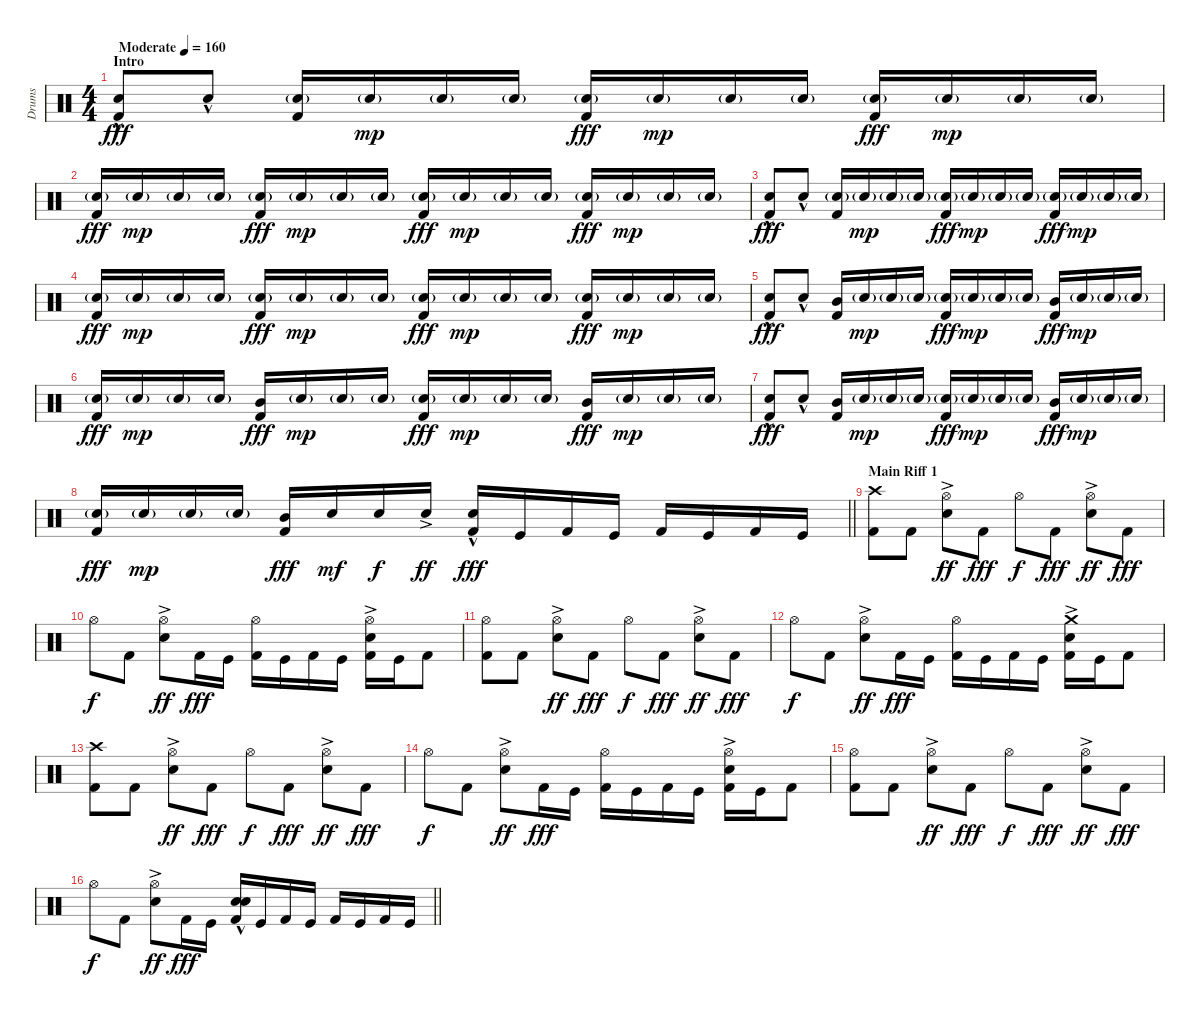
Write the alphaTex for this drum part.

\track ("Drums" "Drums") {instrument percussion}
\staff {score}
\articulation defaults
\ts (4 4)
\section ("" "Intro")
\tempo (160 "Moderate")
\clef neutral
\ks c
("Snare (hit) 2"{hac} "Kick (hit) 2").8{dy fff} "Snare (hit) 2"{hac}.8 ("Snare (hit) 2"{g} "Kick (hit) 2").16 "Snare (hit) 2"{g}.16{dy mp} "Snare (hit) 2"{g}.16 "Snare (hit) 2"{g}.16 ("Snare (hit) 2"{g} "Kick (hit) 2").16{dy fff} "Snare (hit) 2"{g}.16{dy mp} "Snare (hit) 2"{g}.16 "Snare (hit) 2"{g}.16 ("Snare (hit) 2"{g} "Kick (hit) 2").16{dy fff} "Snare (hit) 2"{g}.16{dy mp} "Snare (hit) 2"{g}.16 "Snare (hit) 2"{g}.16 |
("Snare (hit) 2"{g} "Kick (hit) 2").16{dy fff} "Snare (hit) 2"{g}.16{dy mp} "Snare (hit) 2"{g}.16 "Snare (hit) 2"{g}.16 ("Snare (hit) 2"{g} "Kick (hit) 2").16{dy fff} "Snare (hit) 2"{g}.16{dy mp} "Snare (hit) 2"{g}.16 "Snare (hit) 2"{g}.16 ("Snare (hit) 2"{g} "Kick (hit) 2").16{dy fff} "Snare (hit) 2"{g}.16{dy mp} "Snare (hit) 2"{g}.16 "Snare (hit) 2"{g}.16 ("Snare (hit) 2"{g} "Kick (hit) 2").16{dy fff} "Snare (hit) 2"{g}.16{dy mp} "Snare (hit) 2"{g}.16 "Snare (hit) 2"{g}.16 |
("Snare (hit) 2"{hac} "Kick (hit) 2").8{dy fff} "Snare (hit) 2"{hac}.8 ("Snare (hit) 2"{g} "Kick (hit) 2").16 "Snare (hit) 2"{g}.16{dy mp} "Snare (hit) 2"{g}.16 "Snare (hit) 2"{g}.16 ("Snare (hit) 2"{g} "Kick (hit) 2").16{dy fff} "Snare (hit) 2"{g}.16{dy mp} "Snare (hit) 2"{g}.16 "Snare (hit) 2"{g}.16 ("Snare (hit) 2"{g} "Kick (hit) 2").16{dy fff} "Snare (hit) 2"{g}.16{dy mp} "Snare (hit) 2"{g}.16 "Snare (hit) 2"{g}.16 |
("Snare (hit) 2"{g} "Kick (hit) 2").16{dy fff} "Snare (hit) 2"{g}.16{dy mp} "Snare (hit) 2"{g}.16 "Snare (hit) 2"{g}.16 ("Snare (hit) 2"{g} "Kick (hit) 2").16{dy fff} "Snare (hit) 2"{g}.16{dy mp} "Snare (hit) 2"{g}.16 "Snare (hit) 2"{g}.16 ("Snare (hit) 2"{g} "Kick (hit) 2").16{dy fff} "Snare (hit) 2"{g}.16{dy mp} "Snare (hit) 2"{g}.16 "Snare (hit) 2"{g}.16 ("Snare (hit) 2"{g} "Kick (hit) 2").16{dy fff} "Snare (hit) 2"{g}.16{dy mp} "Snare (hit) 2"{g}.16 "Snare (hit) 2"{g}.16 |
("Snare (hit) 2"{hac} "Kick (hit) 2").8{dy fff} "Snare (hit) 2"{hac}.8 ("Mid Tom (hit)" "Kick (hit) 2").16 "Snare (hit) 2"{g}.16{dy mp} "Snare (hit) 2"{g}.16 "Snare (hit) 2"{g}.16 ("Snare (hit) 2"{g} "Kick (hit) 2").16{dy fff} "Snare (hit) 2"{g}.16{dy mp} "Snare (hit) 2"{g}.16 "Snare (hit) 2"{g}.16 ("Mid Tom (hit)" "Kick (hit) 2").16{dy fff} "Snare (hit) 2"{g}.16{dy mp} "Snare (hit) 2"{g}.16 "Snare (hit) 2"{g}.16 |
("Snare (hit) 2"{g} "Kick (hit) 2").16{dy fff} "Snare (hit) 2"{g}.16{dy mp} "Snare (hit) 2"{g}.16 "Snare (hit) 2"{g}.16 ("Mid Tom (hit)" "Kick (hit) 2").16{dy fff} "Snare (hit) 2"{g}.16{dy mp} "Snare (hit) 2"{g}.16 "Snare (hit) 2"{g}.16 ("Snare (hit) 2"{g} "Kick (hit) 2").16{dy fff} "Snare (hit) 2"{g}.16{dy mp} "Snare (hit) 2"{g}.16 "Snare (hit) 2"{g}.16 ("Mid Tom (hit)" "Kick (hit) 2").16{dy fff} "Snare (hit) 2"{g}.16{dy mp} "Snare (hit) 2"{g}.16 "Snare (hit) 2"{g}.16 |
("Snare (hit) 2"{hac} "Kick (hit) 2").8{dy fff} "Snare (hit) 2"{hac}.8 ("Mid Tom (hit)" "Kick (hit) 2").16 "Snare (hit) 2"{g}.16{dy mp} "Snare (hit) 2"{g}.16 "Snare (hit) 2"{g}.16 ("Snare (hit) 2"{g} "Kick (hit) 2").16{dy fff} "Snare (hit) 2"{g}.16{dy mp} "Snare (hit) 2"{g}.16 "Snare (hit) 2"{g}.16 ("Mid Tom (hit)" "Kick (hit) 2").16{dy fff} "Snare (hit) 2"{g}.16{dy mp} "Snare (hit) 2"{g}.16 "Snare (hit) 2"{g}.16 |
\barLineRight lightlight
("Snare (hit) 2"{g} "Kick (hit) 2").16{dy fff} "Snare (hit) 2"{g}.16{dy mp} "Snare (hit) 2"{g}.16 "Snare (hit) 2"{g}.16 ("Mid Tom (hit)" "Kick (hit) 2").16{dy fff} "Snare (hit) 2".16{dy mf} "Snare (hit) 2".16{dy f} "Snare (hit) 2"{ac}.16{dy ff} ("Snare (hit) 2"{hac} "Kick (hit) 2").16{dy fff} "Kick (hit)".16 "Kick (hit) 2".16 "Kick (hit)".16 "Kick (hit) 2".16 "Kick (hit)".16 "Kick (hit) 2".16 "Kick (hit)".16 |
\section ("" "Main Riff 1")
("Crash high (hit)" "Kick (hit) 2").8 "Kick (hit) 2".8 ("Hi-Hat (open)" "Snare (hit) 2"{ac}).8{dy ff} "Kick (hit) 2".8{dy fff} "Hi-Hat (open)".8{dy f} "Kick (hit) 2".8{dy fff} ("Hi-Hat (open)" "Snare (hit) 2"{ac}).8{dy ff} "Kick (hit) 2".8{dy fff} |
"Hi-Hat (open)".8{dy f} "Kick (hit) 2".8 ("Hi-Hat (open)" "Snare (hit) 2"{ac}).8{dy ff} "Kick (hit) 2".16{dy fff} "Kick (hit)".16 ("Hi-Hat (open)" "Kick (hit) 2").16 "Kick (hit)".16 "Kick (hit) 2".16 "Kick (hit)".16 ("Hi-Hat (open)" "Snare (hit) 2"{ac} "Kick (hit) 2").16 "Kick (hit)".16 "Kick (hit) 2".8 |
("Hi-Hat (open)" "Kick (hit) 2").8 "Kick (hit) 2".8 ("Hi-Hat (open)" "Snare (hit) 2"{ac}).8{dy ff} "Kick (hit) 2".8{dy fff} "Hi-Hat (open)".8{dy f} "Kick (hit) 2".8{dy fff} ("Hi-Hat (open)" "Snare (hit) 2"{ac}).8{dy ff} "Kick (hit) 2".8{dy fff} |
"Hi-Hat (open)".8{dy f} "Kick (hit) 2".8 ("Hi-Hat (open)" "Snare (hit) 2"{ac}).8{dy ff} "Kick (hit) 2".16{dy fff} "Kick (hit)".16 ("Hi-Hat (open)" "Kick (hit) 2").16 "Kick (hit)".16 "Kick (hit) 2".16 "Kick (hit)".16 ("Crash medium (hit)" "Snare (hit) 2"{ac} "Kick (hit) 2").16 "Kick (hit)".16 "Kick (hit) 2".8 |
("Crash high (hit)" "Kick (hit) 2").8 "Kick (hit) 2".8 ("Hi-Hat (open)" "Snare (hit) 2"{ac}).8{dy ff} "Kick (hit) 2".8{dy fff} "Hi-Hat (open)".8{dy f} "Kick (hit) 2".8{dy fff} ("Hi-Hat (open)" "Snare (hit) 2"{ac}).8{dy ff} "Kick (hit) 2".8{dy fff} |
"Hi-Hat (open)".8{dy f} "Kick (hit) 2".8 ("Hi-Hat (open)" "Snare (hit) 2"{ac}).8{dy ff} "Kick (hit) 2".16{dy fff} "Kick (hit)".16 ("Hi-Hat (open)" "Kick (hit) 2").16 "Kick (hit)".16 "Kick (hit) 2".16 "Kick (hit)".16 ("Hi-Hat (open)" "Snare (hit) 2"{ac} "Kick (hit) 2").16 "Kick (hit)".16 "Kick (hit) 2".8 |
("Hi-Hat (open)" "Kick (hit) 2").8 "Kick (hit) 2".8 ("Hi-Hat (open)" "Snare (hit) 2"{ac}).8{dy ff} "Kick (hit) 2".8{dy fff} "Hi-Hat (open)".8{dy f} "Kick (hit) 2".8{dy fff} ("Hi-Hat (open)" "Snare (hit) 2"{ac}).8{dy ff} "Kick (hit) 2".8{dy fff} |
\barLineRight lightlight "Hi-Hat (open)".8{dy f} "Kick (hit) 2".8
("Hi-Hat (open)" "Snare (hit) 2"{ac}).8{dy ff} "Kick (hit) 2".16{dy fff} "Kick (hit)".16 ("Snare (hit) 2"{hac} "Snare (hit) 2"{hac} "Kick (hit) 2").16 "Kick (hit)".16 "Kick (hit) 2".16 "Kick (hit)".16 "Kick (hit) 2".16 "Kick (hit)".16 "Kick (hit) 2".16 "Kick (hit)".16
